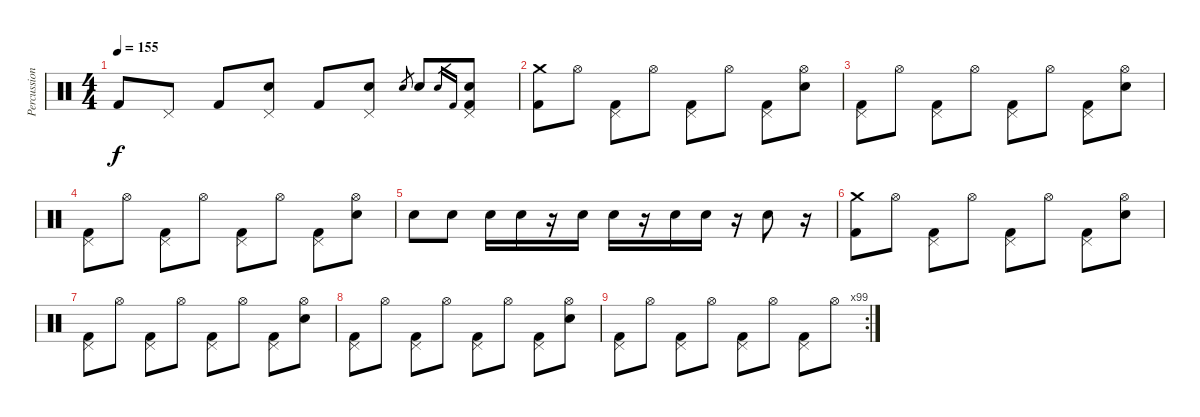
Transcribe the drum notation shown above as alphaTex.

\track ("Percussion" "Percussion") {instrument percussion}
\staff {score}
\articulation defaults
\ts (4 4)
\tempo 155
\clef neutral
\ks c "Kick (hit) 2".8{dy f} "Pedal Hi-Hat (hit)".8 "Kick (hit) 2".8
("Pedal Hi-Hat (hit)" "Snare (hit) 2").8 "Kick (hit) 2".8 ("Pedal Hi-Hat (hit)" "Snare (hit) 2").8 "Snare (hit) 2".8{gr} "Snare (hit) 2".8 "Snare (hit) 2".16{gr} "Kick (hit) 2".16{gr} ("Pedal Hi-Hat (hit)" "Snare (hit) 2" "Kick (hit) 2").8 |
("Crash medium (hit)" "Kick (hit) 2").8 "Hi-Hat (open)".8 ("Pedal Hi-Hat (hit)" "Kick (hit) 2").8 "Hi-Hat (open)".8 ("Pedal Hi-Hat (hit)" "Kick (hit) 2").8 "Hi-Hat (open)".8 ("Pedal Hi-Hat (hit)" "Kick (hit) 2").8 ("Hi-Hat (open)" "Snare (hit) 2").8 |
("Pedal Hi-Hat (hit)" "Kick (hit) 2").8 "Hi-Hat (open)".8 ("Pedal Hi-Hat (hit)" "Kick (hit) 2").8 "Hi-Hat (open)".8 ("Pedal Hi-Hat (hit)" "Kick (hit) 2").8 "Hi-Hat (open)".8 ("Pedal Hi-Hat (hit)" "Kick (hit) 2").8 ("Hi-Hat (open)" "Snare (hit) 2").8 |
("Pedal Hi-Hat (hit)" "Kick (hit) 2").8 "Hi-Hat (open)".8 ("Pedal Hi-Hat (hit)" "Kick (hit) 2").8 "Hi-Hat (open)".8 ("Pedal Hi-Hat (hit)" "Kick (hit) 2").8 "Hi-Hat (open)".8 ("Pedal Hi-Hat (hit)" "Kick (hit) 2").8 ("Hi-Hat (open)" "Snare (hit) 2").8 |
"Snare (hit) 2".8 "Snare (hit) 2".8 "Snare (hit) 2".16 "Snare (hit) 2".16 r.16 "Snare (hit) 2".16 "Snare (hit) 2".16 r.16 "Snare (hit) 2".16 "Snare (hit) 2".16 r.16 "Snare (hit) 2".8 r.16 |
("Crash medium (hit)" "Kick (hit) 2").8 "Hi-Hat (open)".8 ("Pedal Hi-Hat (hit)" "Kick (hit) 2").8 "Hi-Hat (open)".8 ("Pedal Hi-Hat (hit)" "Kick (hit) 2").8 "Hi-Hat (open)".8 ("Pedal Hi-Hat (hit)" "Kick (hit) 2").8 ("Hi-Hat (open)" "Snare (hit) 2").8 |
("Pedal Hi-Hat (hit)" "Kick (hit) 2").8 "Hi-Hat (open)".8 ("Pedal Hi-Hat (hit)" "Kick (hit) 2").8 "Hi-Hat (open)".8 ("Pedal Hi-Hat (hit)" "Kick (hit) 2").8 "Hi-Hat (open)".8 ("Pedal Hi-Hat (hit)" "Kick (hit) 2").8 ("Hi-Hat (open)" "Snare (hit) 2").8 |
("Pedal Hi-Hat (hit)" "Kick (hit) 2").8{volume 11} "Hi-Hat (open)".8 ("Pedal Hi-Hat (hit)" "Kick (hit) 2").8 "Hi-Hat (open)".8 ("Pedal Hi-Hat (hit)" "Kick (hit) 2").8 "Hi-Hat (open)".8 ("Pedal Hi-Hat (hit)" "Kick (hit) 2").8 ("Hi-Hat (open)" "Snare (hit) 2").8 |
\rc 99
("Pedal Hi-Hat (hit)" "Kick (hit) 2").8 "Hi-Hat (open)".8 ("Pedal Hi-Hat (hit)" "Kick (hit) 2").8 "Hi-Hat (open)".8 ("Pedal Hi-Hat (hit)" "Kick (hit) 2").8 "Hi-Hat (open)".8 ("Pedal Hi-Hat (hit)" "Kick (hit) 2").8 "Hi-Hat (open)".8
